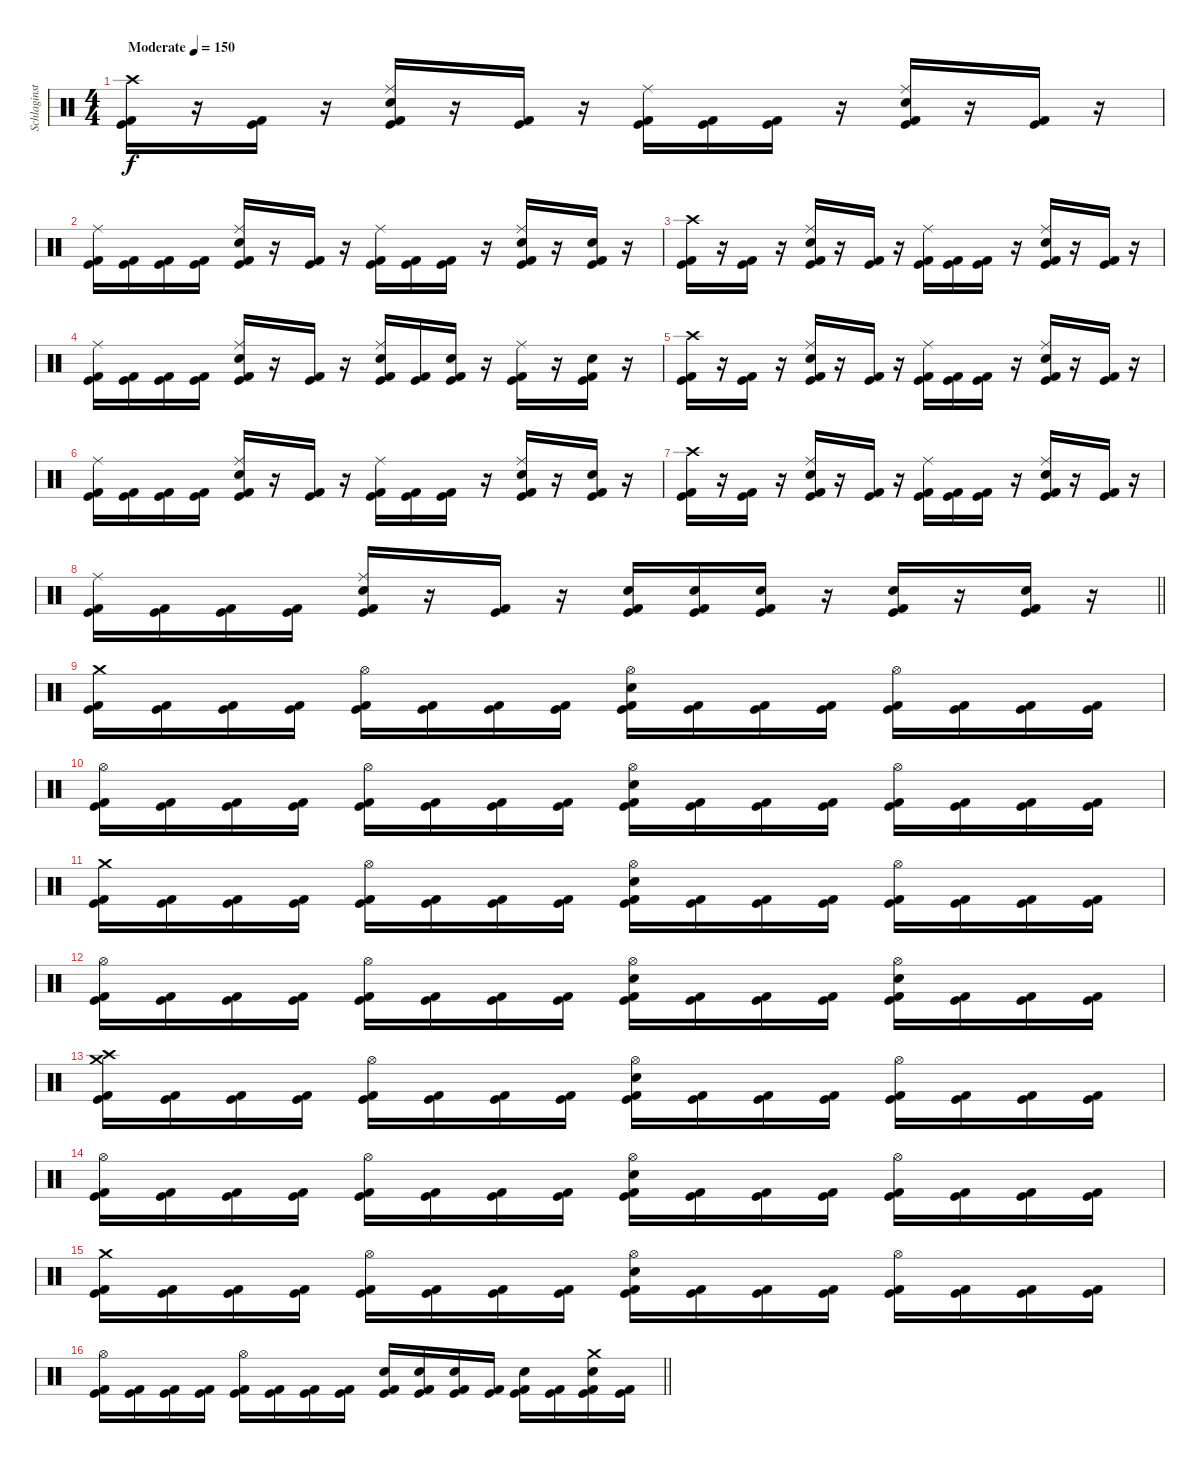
\track ("Schlaginstrumente - Auswahl" "Schlaginst") {instrument percussion}
\staff {score}
\articulation defaults
\ts (4 4)
\tempo (150 "Moderate")
\clef neutral
\ks c
("Crash high (hit)" "Kick (hit)" "Kick (hit) 2").16{dy f} r.16 ("Kick (hit)" "Kick (hit) 2").16 r.16 ("Ride (middle)" "Electric Snare (hit)" "Kick (hit)" "Kick (hit) 2").16 r.16 ("Kick (hit)" "Kick (hit) 2").16 r.16 ("Ride (middle)" "Kick (hit)" "Kick (hit) 2").16 ("Kick (hit)" "Kick (hit) 2").16 ("Kick (hit)" "Kick (hit) 2").16 r.16 ("Ride (middle)" "Electric Snare (hit)" "Kick (hit)" "Kick (hit) 2").16 r.16 ("Kick (hit)" "Kick (hit) 2").16 r.16 |
("Ride (middle)" "Kick (hit)" "Kick (hit) 2").16 ("Kick (hit)" "Kick (hit) 2").16 ("Kick (hit)" "Kick (hit) 2").16 ("Kick (hit)" "Kick (hit) 2").16 ("Ride (middle)" "Electric Snare (hit)" "Kick (hit)" "Kick (hit) 2").16 r.16 ("Kick (hit)" "Kick (hit) 2").16 r.16 ("Ride (middle)" "Kick (hit)" "Kick (hit) 2").16 ("Kick (hit)" "Kick (hit) 2").16 ("Kick (hit)" "Kick (hit) 2").16 r.16 ("Ride (middle)" "Electric Snare (hit)" "Kick (hit)" "Kick (hit) 2").16 r.16 ("Electric Snare (hit)" "Kick (hit)" "Kick (hit) 2").16 r.16 |
("Crash high (hit)" "Kick (hit)" "Kick (hit) 2").16 r.16 ("Kick (hit)" "Kick (hit) 2").16 r.16 ("Ride (middle)" "Electric Snare (hit)" "Kick (hit)" "Kick (hit) 2").16 r.16 ("Kick (hit)" "Kick (hit) 2").16 r.16 ("Ride (middle)" "Kick (hit)" "Kick (hit) 2").16 ("Kick (hit)" "Kick (hit) 2").16 ("Kick (hit)" "Kick (hit) 2").16 r.16 ("Ride (middle)" "Electric Snare (hit)" "Kick (hit)" "Kick (hit) 2").16 r.16 ("Kick (hit)" "Kick (hit) 2").16 r.16 |
("Ride (middle)" "Kick (hit)" "Kick (hit) 2").16 ("Kick (hit)" "Kick (hit) 2").16 ("Kick (hit)" "Kick (hit) 2").16 ("Kick (hit)" "Kick (hit) 2").16 ("Ride (middle)" "Electric Snare (hit)" "Kick (hit)" "Kick (hit) 2").16 r.16 ("Kick (hit)" "Kick (hit) 2").16 r.16 ("Ride (middle)" "Electric Snare (hit)" "Kick (hit)" "Kick (hit) 2").16 ("Kick (hit)" "Kick (hit) 2").16 ("Electric Snare (hit)" "Kick (hit)" "Kick (hit) 2").16 r.16 ("Ride (middle)" "Kick (hit)" "Kick (hit) 2").16 r.16 ("Electric Snare (hit)" "Kick (hit)" "Kick (hit) 2").16 r.16 |
("Crash high (hit)" "Kick (hit)" "Kick (hit) 2").16 r.16 ("Kick (hit)" "Kick (hit) 2").16 r.16 ("Ride (middle)" "Electric Snare (hit)" "Kick (hit)" "Kick (hit) 2").16 r.16 ("Kick (hit)" "Kick (hit) 2").16 r.16 ("Ride (middle)" "Kick (hit)" "Kick (hit) 2").16 ("Kick (hit)" "Kick (hit) 2").16 ("Kick (hit)" "Kick (hit) 2").16 r.16 ("Ride (middle)" "Electric Snare (hit)" "Kick (hit)" "Kick (hit) 2").16 r.16 ("Kick (hit)" "Kick (hit) 2").16 r.16 |
("Ride (middle)" "Kick (hit)" "Kick (hit) 2").16 ("Kick (hit)" "Kick (hit) 2").16 ("Kick (hit)" "Kick (hit) 2").16 ("Kick (hit)" "Kick (hit) 2").16 ("Ride (middle)" "Electric Snare (hit)" "Kick (hit)" "Kick (hit) 2").16 r.16 ("Kick (hit)" "Kick (hit) 2").16 r.16 ("Ride (middle)" "Kick (hit)" "Kick (hit) 2").16 ("Kick (hit)" "Kick (hit) 2").16 ("Kick (hit)" "Kick (hit) 2").16 r.16 ("Ride (middle)" "Electric Snare (hit)" "Kick (hit)" "Kick (hit) 2").16 r.16 ("Electric Snare (hit)" "Kick (hit)" "Kick (hit) 2").16 r.16 |
("Crash high (hit)" "Kick (hit)" "Kick (hit) 2").16 r.16 ("Kick (hit)" "Kick (hit) 2").16 r.16 ("Ride (middle)" "Electric Snare (hit)" "Kick (hit)" "Kick (hit) 2").16 r.16 ("Kick (hit)" "Kick (hit) 2").16 r.16 ("Ride (middle)" "Kick (hit)" "Kick (hit) 2").16 ("Kick (hit)" "Kick (hit) 2").16 ("Kick (hit)" "Kick (hit) 2").16 r.16 ("Ride (middle)" "Electric Snare (hit)" "Kick (hit)" "Kick (hit) 2").16 r.16 ("Kick (hit)" "Kick (hit) 2").16 r.16 |
\barLineRight lightlight
("Ride (middle)" "Kick (hit)" "Kick (hit) 2").16 ("Kick (hit)" "Kick (hit) 2").16 ("Kick (hit)" "Kick (hit) 2").16 ("Kick (hit)" "Kick (hit) 2").16 ("Ride (middle)" "Electric Snare (hit)" "Kick (hit)" "Kick (hit) 2").16 r.16 ("Kick (hit)" "Kick (hit) 2").16 r.16 ("Electric Snare (hit)" "Kick (hit)" "Kick (hit) 2").16 ("Electric Snare (hit)" "Kick (hit)" "Kick (hit) 2").16 ("Electric Snare (hit)" "Kick (hit)" "Kick (hit) 2").16 r.16 ("Electric Snare (hit)" "Kick (hit)" "Kick (hit) 2").16 r.16 ("Electric Snare (hit)" "Kick (hit)" "Kick (hit) 2").16 r.16 |
("Crash medium (hit)" "Kick (hit)" "Kick (hit) 2").16 ("Kick (hit)" "Kick (hit) 2").16 ("Kick (hit)" "Kick (hit) 2").16 ("Kick (hit)" "Kick (hit) 2").16 ("Hi-Hat (open)" "Kick (hit)" "Kick (hit) 2").16 ("Kick (hit)" "Kick (hit) 2").16 ("Kick (hit)" "Kick (hit) 2").16 ("Kick (hit)" "Kick (hit) 2").16 ("Hi-Hat (open)" "Electric Snare (hit)" "Kick (hit)" "Kick (hit) 2").16 ("Kick (hit)" "Kick (hit) 2").16 ("Kick (hit)" "Kick (hit) 2").16 ("Kick (hit)" "Kick (hit) 2").16 ("Hi-Hat (open)" "Kick (hit)" "Kick (hit) 2").16 ("Kick (hit)" "Kick (hit) 2").16 ("Kick (hit)" "Kick (hit) 2").16 ("Kick (hit)" "Kick (hit) 2").16 |
("Hi-Hat (open)" "Kick (hit)" "Kick (hit) 2").16 ("Kick (hit)" "Kick (hit) 2").16 ("Kick (hit)" "Kick (hit) 2").16 ("Kick (hit)" "Kick (hit) 2").16 ("Hi-Hat (open)" "Kick (hit)" "Kick (hit) 2").16 ("Kick (hit)" "Kick (hit) 2").16 ("Kick (hit)" "Kick (hit) 2").16 ("Kick (hit)" "Kick (hit) 2").16 ("Hi-Hat (open)" "Electric Snare (hit)" "Kick (hit)" "Kick (hit) 2").16 ("Kick (hit)" "Kick (hit) 2").16 ("Kick (hit)" "Kick (hit) 2").16 ("Kick (hit)" "Kick (hit) 2").16 ("Hi-Hat (open)" "Kick (hit)" "Kick (hit) 2").16 ("Kick (hit)" "Kick (hit) 2").16 ("Kick (hit)" "Kick (hit) 2").16 ("Kick (hit)" "Kick (hit) 2").16 |
("Crash medium (hit)" "Kick (hit)" "Kick (hit) 2").16 ("Kick (hit)" "Kick (hit) 2").16 ("Kick (hit)" "Kick (hit) 2").16 ("Kick (hit)" "Kick (hit) 2").16 ("Hi-Hat (open)" "Kick (hit)" "Kick (hit) 2").16 ("Kick (hit)" "Kick (hit) 2").16 ("Kick (hit)" "Kick (hit) 2").16 ("Kick (hit)" "Kick (hit) 2").16 ("Hi-Hat (open)" "Electric Snare (hit)" "Kick (hit)" "Kick (hit) 2").16 ("Kick (hit)" "Kick (hit) 2").16 ("Kick (hit)" "Kick (hit) 2").16 ("Kick (hit)" "Kick (hit) 2").16 ("Hi-Hat (open)" "Kick (hit)" "Kick (hit) 2").16 ("Kick (hit)" "Kick (hit) 2").16 ("Kick (hit)" "Kick (hit) 2").16 ("Kick (hit)" "Kick (hit) 2").16 |
("Hi-Hat (open)" "Kick (hit)" "Kick (hit) 2").16 ("Kick (hit)" "Kick (hit) 2").16 ("Kick (hit)" "Kick (hit) 2").16 ("Kick (hit)" "Kick (hit) 2").16 ("Hi-Hat (open)" "Kick (hit)" "Kick (hit) 2").16 ("Kick (hit)" "Kick (hit) 2").16 ("Kick (hit)" "Kick (hit) 2").16 ("Kick (hit)" "Kick (hit) 2").16 ("Hi-Hat (open)" "Electric Snare (hit)" "Kick (hit)" "Kick (hit) 2").16 ("Kick (hit)" "Kick (hit) 2").16 ("Kick (hit)" "Kick (hit) 2").16 ("Kick (hit)" "Kick (hit) 2").16 ("Hi-Hat (open)" "Electric Snare (hit)" "Kick (hit)" "Kick (hit) 2").16 ("Kick (hit)" "Kick (hit) 2").16 ("Kick (hit)" "Kick (hit) 2").16 ("Kick (hit)" "Kick (hit) 2").16 |
("Crash medium (hit)" "Crash high (hit)" "Kick (hit)" "Kick (hit) 2").16 ("Kick (hit)" "Kick (hit) 2").16 ("Kick (hit)" "Kick (hit) 2").16 ("Kick (hit)" "Kick (hit) 2").16 ("Hi-Hat (open)" "Kick (hit)" "Kick (hit) 2").16 ("Kick (hit)" "Kick (hit) 2").16 ("Kick (hit)" "Kick (hit) 2").16 ("Kick (hit)" "Kick (hit) 2").16 ("Hi-Hat (open)" "Electric Snare (hit)" "Kick (hit)" "Kick (hit) 2").16 ("Kick (hit)" "Kick (hit) 2").16 ("Kick (hit)" "Kick (hit) 2").16 ("Kick (hit)" "Kick (hit) 2").16 ("Hi-Hat (open)" "Kick (hit)" "Kick (hit) 2").16 ("Kick (hit)" "Kick (hit) 2").16 ("Kick (hit)" "Kick (hit) 2").16 ("Kick (hit)" "Kick (hit) 2").16 |
("Hi-Hat (open)" "Kick (hit)" "Kick (hit) 2").16 ("Kick (hit)" "Kick (hit) 2").16 ("Kick (hit)" "Kick (hit) 2").16 ("Kick (hit)" "Kick (hit) 2").16 ("Hi-Hat (open)" "Kick (hit)" "Kick (hit) 2").16 ("Kick (hit)" "Kick (hit) 2").16 ("Kick (hit)" "Kick (hit) 2").16 ("Kick (hit)" "Kick (hit) 2").16 ("Hi-Hat (open)" "Electric Snare (hit)" "Kick (hit)" "Kick (hit) 2").16 ("Kick (hit)" "Kick (hit) 2").16 ("Kick (hit)" "Kick (hit) 2").16 ("Kick (hit)" "Kick (hit) 2").16 ("Hi-Hat (open)" "Kick (hit)" "Kick (hit) 2").16 ("Kick (hit)" "Kick (hit) 2").16 ("Kick (hit)" "Kick (hit) 2").16 ("Kick (hit)" "Kick (hit) 2").16 |
("Crash medium (hit)" "Kick (hit)" "Kick (hit) 2").16 ("Kick (hit)" "Kick (hit) 2").16 ("Kick (hit)" "Kick (hit) 2").16 ("Kick (hit)" "Kick (hit) 2").16 ("Hi-Hat (open)" "Kick (hit)" "Kick (hit) 2").16 ("Kick (hit)" "Kick (hit) 2").16 ("Kick (hit)" "Kick (hit) 2").16 ("Kick (hit)" "Kick (hit) 2").16 ("Hi-Hat (open)" "Electric Snare (hit)" "Kick (hit)" "Kick (hit) 2").16 ("Kick (hit)" "Kick (hit) 2").16 ("Kick (hit)" "Kick (hit) 2").16 ("Kick (hit)" "Kick (hit) 2").16 ("Hi-Hat (open)" "Kick (hit)" "Kick (hit) 2").16 ("Kick (hit)" "Kick (hit) 2").16 ("Kick (hit)" "Kick (hit) 2").16 ("Kick (hit)" "Kick (hit) 2").16 |
\barLineRight lightlight
("Hi-Hat (open)" "Kick (hit)" "Kick (hit) 2").16 ("Kick (hit)" "Kick (hit) 2").16 ("Kick (hit)" "Kick (hit) 2").16 ("Kick (hit)" "Kick (hit) 2").16 ("Hi-Hat (open)" "Kick (hit)" "Kick (hit) 2").16 ("Kick (hit)" "Kick (hit) 2").16 ("Kick (hit)" "Kick (hit) 2").16 ("Kick (hit)" "Kick (hit) 2").16 ("Electric Snare (hit)" "Kick (hit)" "Kick (hit) 2").16 ("Electric Snare (hit)" "Kick (hit)" "Kick (hit) 2").16 ("Electric Snare (hit)" "Kick (hit)" "Kick (hit) 2").16 ("Kick (hit)" "Kick (hit) 2").16 ("Electric Snare (hit)" "Kick (hit)" "Kick (hit) 2").16 ("Kick (hit)" "Kick (hit) 2").16 ("Crash medium (hit)" "Electric Snare (hit)" "Kick (hit)" "Kick (hit) 2").16 ("Kick (hit)" "Kick (hit) 2").16
